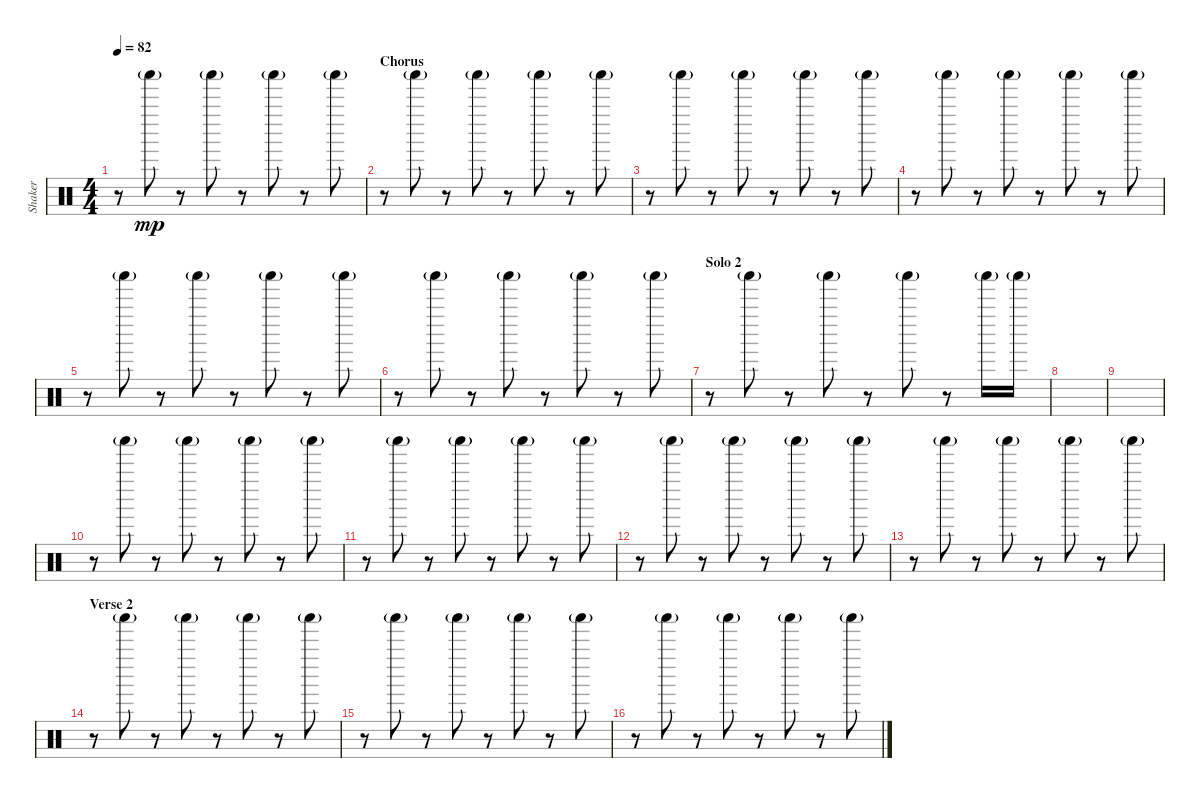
\track ("Shaker" "Shaker") {instrument percussion}
\staff {score}
\articulation defaults
\ts (4 4)
\tempo 82
\clef neutral
\ks c
r.8{dy mp} "Shaker (hit)"{g}.8 r.8 "Shaker (hit)"{g}.8 r.8 "Shaker (hit)"{g}.8 r.8 "Shaker (hit)"{g}.8 |
\section ("" "Chorus")
r.8 "Shaker (hit)"{g}.8 r.8 "Shaker (hit)"{g}.8 r.8 "Shaker (hit)"{g}.8 r.8 "Shaker (hit)"{g}.8 |
r.8 "Shaker (hit)"{g}.8 r.8 "Shaker (hit)"{g}.8 r.8 "Shaker (hit)"{g}.8 r.8 "Shaker (hit)"{g}.8 |
r.8 "Shaker (hit)"{g}.8 r.8 "Shaker (hit)"{g}.8 r.8 "Shaker (hit)"{g}.8 r.8 "Shaker (hit)"{g}.8 |
r.8 "Shaker (hit)"{g}.8 r.8 "Shaker (hit)"{g}.8 r.8 "Shaker (hit)"{g}.8 r.8 "Shaker (hit)"{g}.8 |
r.8 "Shaker (hit)"{g}.8 r.8 "Shaker (hit)"{g}.8 r.8 "Shaker (hit)"{g}.8 r.8 "Shaker (hit)"{g}.8 |
\section ("" "Solo 2")
r.8 "Shaker (hit)"{g}.8 r.8 "Shaker (hit)"{g}.8 r.8 "Shaker (hit)"{g}.8 r.8 "Shaker (hit)"{g}.16 "Shaker (hit)"{g}.16 |
|
|
r.8 "Shaker (hit)"{g}.8 r.8 "Shaker (hit)"{g}.8 r.8 "Shaker (hit)"{g}.8 r.8 "Shaker (hit)"{g}.8 |
r.8 "Shaker (hit)"{g}.8 r.8 "Shaker (hit)"{g}.8 r.8 "Shaker (hit)"{g}.8 r.8 "Shaker (hit)"{g}.8 |
r.8 "Shaker (hit)"{g}.8 r.8 "Shaker (hit)"{g}.8 r.8 "Shaker (hit)"{g}.8 r.8 "Shaker (hit)"{g}.8 |
r.8 "Shaker (hit)"{g}.8 r.8 "Shaker (hit)"{g}.8 r.8 "Shaker (hit)"{g}.8 r.8 "Shaker (hit)"{g}.8 |
\section ("" "Verse 2")
r.8 "Shaker (hit)"{g}.8 r.8 "Shaker (hit)"{g}.8 r.8 "Shaker (hit)"{g}.8 r.8 "Shaker (hit)"{g}.8 |
r.8 "Shaker (hit)"{g}.8 r.8 "Shaker (hit)"{g}.8 r.8 "Shaker (hit)"{g}.8 r.8 "Shaker (hit)"{g}.8 |
r.8 "Shaker (hit)"{g}.8 r.8 "Shaker (hit)"{g}.8 r.8 "Shaker (hit)"{g}.8 r.8 "Shaker (hit)"{g}.8
